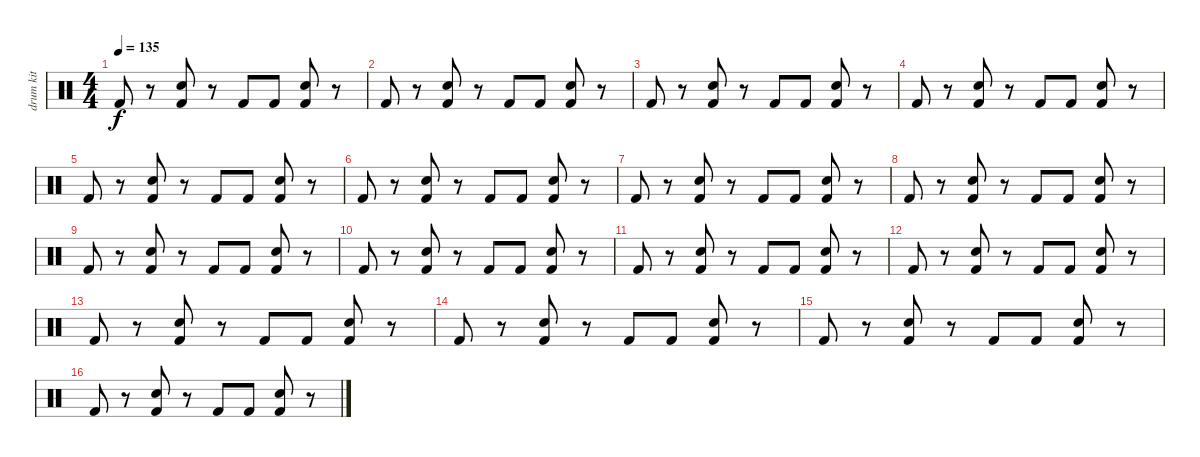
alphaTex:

\track ("drum kit" "drum kit") {instrument percussion}
\staff {score}
\articulation defaults
\ts (4 4)
\tempo 135
\clef neutral
\ks c "Kick (hit) 2".8{dy f}
r.8 ("Snare (hit) 2" "Kick (hit) 2").8 r.8 "Kick (hit) 2".8 "Kick (hit) 2".8 ("Snare (hit) 2" "Kick (hit) 2").8 r.8 |
"Kick (hit) 2".8 r.8 ("Snare (hit) 2" "Kick (hit) 2").8 r.8 "Kick (hit) 2".8 "Kick (hit) 2".8 ("Snare (hit) 2" "Kick (hit) 2").8 r.8 |
"Kick (hit) 2".8 r.8 ("Snare (hit) 2" "Kick (hit) 2").8 r.8 "Kick (hit) 2".8 "Kick (hit) 2".8 ("Snare (hit) 2" "Kick (hit) 2").8 r.8 |
"Kick (hit) 2".8 r.8 ("Snare (hit) 2" "Kick (hit) 2").8 r.8 "Kick (hit) 2".8 "Kick (hit) 2".8 ("Snare (hit) 2" "Kick (hit) 2").8 r.8 |
"Kick (hit) 2".8 r.8 ("Snare (hit) 2" "Kick (hit) 2").8 r.8 "Kick (hit) 2".8 "Kick (hit) 2".8 ("Snare (hit) 2" "Kick (hit) 2").8 r.8 |
"Kick (hit) 2".8 r.8 ("Snare (hit) 2" "Kick (hit) 2").8 r.8 "Kick (hit) 2".8 "Kick (hit) 2".8 ("Snare (hit) 2" "Kick (hit) 2").8 r.8 |
"Kick (hit) 2".8 r.8 ("Snare (hit) 2" "Kick (hit) 2").8 r.8 "Kick (hit) 2".8 "Kick (hit) 2".8 ("Snare (hit) 2" "Kick (hit) 2").8 r.8 |
"Kick (hit) 2".8 r.8 ("Snare (hit) 2" "Kick (hit) 2").8 r.8 "Kick (hit) 2".8 "Kick (hit) 2".8 ("Snare (hit) 2" "Kick (hit) 2").8 r.8 |
"Kick (hit) 2".8 r.8 ("Snare (hit) 2" "Kick (hit) 2").8 r.8 "Kick (hit) 2".8 "Kick (hit) 2".8 ("Snare (hit) 2" "Kick (hit) 2").8 r.8 |
"Kick (hit) 2".8 r.8 ("Snare (hit) 2" "Kick (hit) 2").8 r.8 "Kick (hit) 2".8 "Kick (hit) 2".8 ("Snare (hit) 2" "Kick (hit) 2").8 r.8 |
"Kick (hit) 2".8 r.8 ("Snare (hit) 2" "Kick (hit) 2").8 r.8 "Kick (hit) 2".8 "Kick (hit) 2".8 ("Snare (hit) 2" "Kick (hit) 2").8 r.8 |
"Kick (hit) 2".8 r.8 ("Snare (hit) 2" "Kick (hit) 2").8 r.8 "Kick (hit) 2".8 "Kick (hit) 2".8 ("Snare (hit) 2" "Kick (hit) 2").8 r.8 |
"Kick (hit) 2".8 r.8 ("Snare (hit) 2" "Kick (hit) 2").8 r.8 "Kick (hit) 2".8 "Kick (hit) 2".8 ("Snare (hit) 2" "Kick (hit) 2").8 r.8 |
"Kick (hit) 2".8 r.8 ("Snare (hit) 2" "Kick (hit) 2").8 r.8 "Kick (hit) 2".8 "Kick (hit) 2".8 ("Snare (hit) 2" "Kick (hit) 2").8 r.8 |
"Kick (hit) 2".8 r.8 ("Snare (hit) 2" "Kick (hit) 2").8 r.8 "Kick (hit) 2".8 "Kick (hit) 2".8 ("Snare (hit) 2" "Kick (hit) 2").8 r.8 |
"Kick (hit) 2".8 r.8 ("Snare (hit) 2" "Kick (hit) 2").8 r.8 "Kick (hit) 2".8 "Kick (hit) 2".8 ("Snare (hit) 2" "Kick (hit) 2").8 r.8
